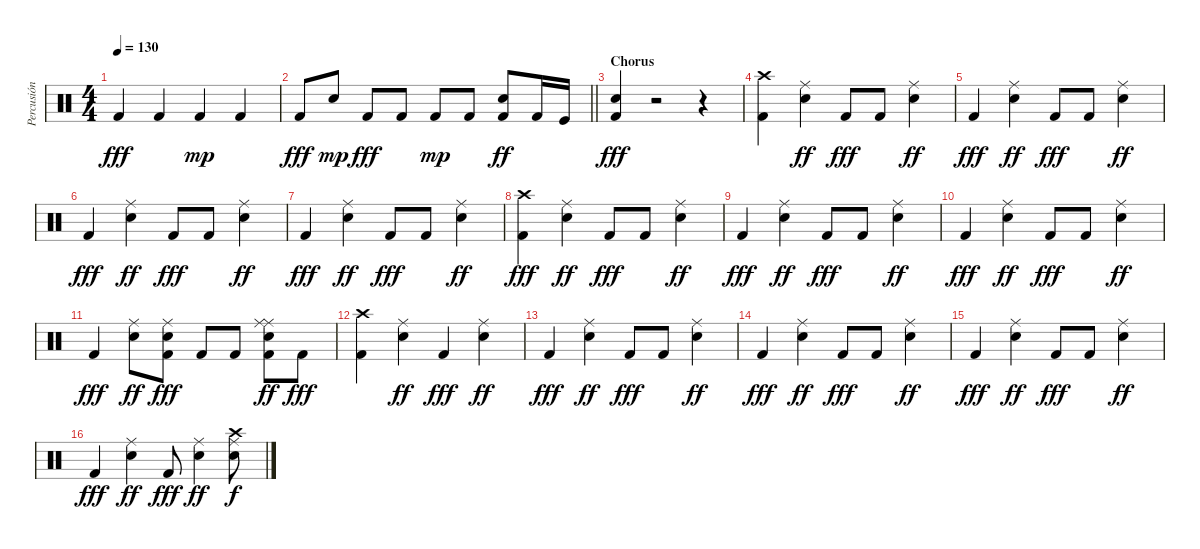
\track ("Percusión" "Percusión") {instrument percussion}
\staff {score}
\articulation defaults
\ts (4 4)
\tempo 130
\clef neutral
\ks c "Kick (hit) 2".4{dy fff} "Kick (hit) 2".4 "Kick (hit) 2".4{dy mp} "Kick (hit) 2".4
|
\barLineRight lightlight "Kick (hit) 2".8{dy fff} "Snare (hit) 2".8{dy mp} "Kick (hit) 2".8{dy fff} "Kick (hit) 2".8 "Kick (hit) 2".8{dy mp} "Kick (hit) 2".8
("Kick (hit) 2" "Snare (hit) 2").8{dy ff} "Kick (hit) 2".16 "Kick (hit)".16 |
\section ("" "Chorus")
("Kick (hit) 2" "Snare (hit) 2").4{dy fff} r.2{volume 0} r.4{volume 16} |
("Kick (hit) 2" "Crash high (hit)").4 ("Snare (hit) 2" "Ride (middle)").4{dy ff} "Kick (hit) 2".8{dy fff} "Kick (hit) 2".8 ("Snare (hit) 2" "Ride (middle)").4{dy ff} |
"Kick (hit) 2".4{dy fff} ("Snare (hit) 2" "Ride (middle)").4{dy ff} "Kick (hit) 2".8{dy fff} "Kick (hit) 2".8 ("Snare (hit) 2" "Ride (middle)").4{dy ff} |
"Kick (hit) 2".4{dy fff} ("Snare (hit) 2" "Ride (middle)").4{dy ff} "Kick (hit) 2".8{dy fff} "Kick (hit) 2".8 ("Snare (hit) 2" "Ride (middle)").4{dy ff} |
"Kick (hit) 2".4{dy fff} ("Snare (hit) 2" "Ride (middle)").4{dy ff} "Kick (hit) 2".8{dy fff} "Kick (hit) 2".8 ("Snare (hit) 2" "Ride (middle)").4{dy ff} |
("Kick (hit) 2" "Crash high (hit)").4{dy fff} ("Snare (hit) 2" "Ride (middle)").4{dy ff} "Kick (hit) 2".8{dy fff} "Kick (hit) 2".8 ("Snare (hit) 2" "Ride (middle)").4{dy ff} |
"Kick (hit) 2".4{dy fff} ("Snare (hit) 2" "Ride (middle)").4{dy ff} "Kick (hit) 2".8{dy fff} "Kick (hit) 2".8 ("Snare (hit) 2" "Ride (middle)").4{dy ff} |
"Kick (hit) 2".4{dy fff} ("Snare (hit) 2" "Ride (middle)").4{dy ff} "Kick (hit) 2".8{dy fff} "Kick (hit) 2".8 ("Snare (hit) 2" "Ride (middle)").4{dy ff} |
"Kick (hit) 2".4{dy fff} ("Snare (hit) 2" "Ride (middle)").8{dy ff} ("Kick (hit) 2" "Ride (middle)" "Snare (hit) 2").8{dy fff} "Kick (hit) 2".8 "Kick (hit) 2".8 ("Kick (hit) 2" "Ride (middle)" "Snare (hit) 2" "Ride (middle)").8{dy ff} "Kick (hit) 2".8{dy fff} |
("Kick (hit) 2" "Crash high (hit)").4 ("Snare (hit) 2" "Ride (middle)").4{dy ff} "Kick (hit) 2".4{dy fff} ("Snare (hit) 2" "Ride (middle)").4{dy ff} |
"Kick (hit) 2".4{dy fff} ("Snare (hit) 2" "Ride (middle)").4{dy ff} "Kick (hit) 2".8{dy fff} "Kick (hit) 2".8 ("Snare (hit) 2" "Ride (middle)").4{dy ff} |
"Kick (hit) 2".4{dy fff} ("Snare (hit) 2" "Ride (middle)").4{dy ff} "Kick (hit) 2".8{dy fff} "Kick (hit) 2".8 ("Snare (hit) 2" "Ride (middle)").4{dy ff} |
"Kick (hit) 2".4{dy fff} ("Snare (hit) 2" "Ride (middle)").4{dy ff} "Kick (hit) 2".8{dy fff} "Kick (hit) 2".8 ("Snare (hit) 2" "Ride (middle)").4{dy ff} |
"Kick (hit) 2".4{dy fff} ("Snare (hit) 2" "Ride (middle)").4{dy ff} "Kick (hit) 2".8{dy fff} ("Snare (hit) 2" "Ride (middle)").4{dy ff} ("Crash high (hit)" "Snare (hit) 2" "Ride (middle)").8{dy f}
